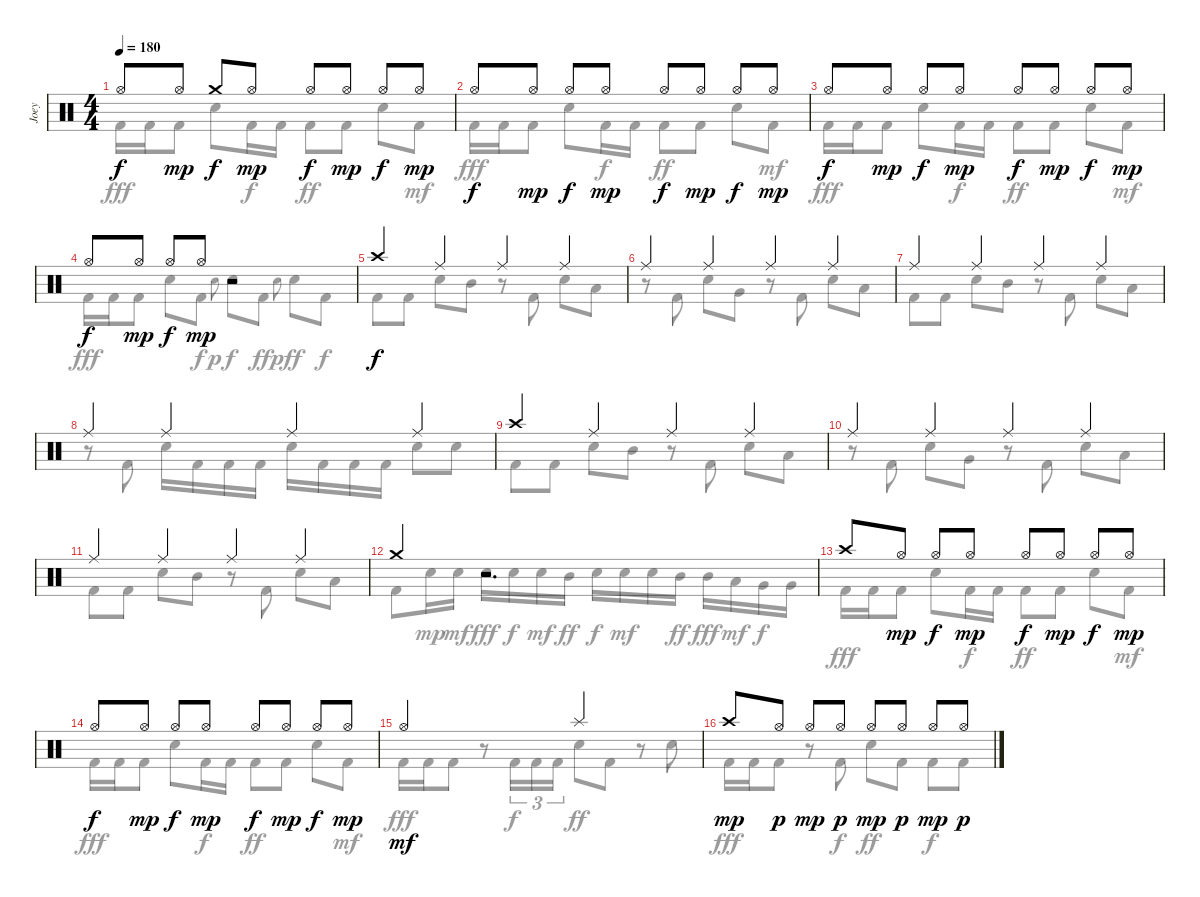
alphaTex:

\track ("Joey" "Joey") {instrument percussion}
\staff {score}
\articulation defaults
\voice
\ts (4 4)
\tempo 180
\clef neutral
\ks c "Hi-Hat (open)".8{dy f} "Hi-Hat (open)".8{dy mp} "Crash medium (hit)".8{dy f} "Hi-Hat (open)".8{dy mp} "Hi-Hat (open)".8{dy f} "Hi-Hat (open)".8{dy mp} "Hi-Hat (open)".8{dy f} "Hi-Hat (open)".8{dy mp}
|
"Hi-Hat (open)".8{dy f} "Hi-Hat (open)".8{dy mp} "Hi-Hat (open)".8{dy f} "Hi-Hat (open)".8{dy mp} "Hi-Hat (open)".8{dy f} "Hi-Hat (open)".8{dy mp} "Hi-Hat (open)".8{dy f} "Hi-Hat (open)".8{dy mp} |
"Hi-Hat (open)".8{dy f} "Hi-Hat (open)".8{dy mp} "Hi-Hat (open)".8{dy f} "Hi-Hat (open)".8{dy mp} "Hi-Hat (open)".8{dy f} "Hi-Hat (open)".8{dy mp} "Hi-Hat (open)".8{dy f} "Hi-Hat (open)".8{dy mp} |
"Hi-Hat (open)".8{dy f} "Hi-Hat (open)".8{dy mp} "Hi-Hat (open)".8{dy f} "Hi-Hat (open)".8{dy mp} r.2 |
"Crash high (hit)".4{dy f} "Ride (middle)".4 "Ride (middle)".4 "Ride (middle)".4 |
"Ride (middle)".4 "Ride (middle)".4 "Ride (middle)".4 "Ride (middle)".4 |
"Ride (middle)".4 "Ride (middle)".4 "Ride (middle)".4 "Ride (middle)".4 |
"Ride (middle)".4 "Ride (middle)".4 "Ride (middle)".4 "Ride (middle)".4 |
"Crash high (hit)".4 "Ride (middle)".4 "Ride (middle)".4 "Ride (middle)".4 |
"Ride (middle)".4 "Ride (middle)".4 "Ride (middle)".4 "Ride (middle)".4 |
"Ride (middle)".4 "Ride (middle)".4 "Ride (middle)".4 "Ride (middle)".4 |
"Crash medium (hit)".4 r.2{d} |
"Crash high (hit)".8 "Hi-Hat (open)".8{dy mp} "Hi-Hat (open)".8{dy f} "Hi-Hat (open)".8{dy mp} "Hi-Hat (open)".8{dy f} "Hi-Hat (open)".8{dy mp} "Hi-Hat (open)".8{dy f} "Hi-Hat (open)".8{dy mp} |
"Hi-Hat (open)".8{dy f} "Hi-Hat (open)".8{dy mp} "Hi-Hat (open)".8{dy f} "Hi-Hat (open)".8{dy mp} "Hi-Hat (open)".8{dy f} "Hi-Hat (open)".8{dy mp} "Hi-Hat (open)".8{dy f} "Hi-Hat (open)".8{dy mp} |
"Hi-Hat (open)".2{dy mf} "Splash (hit)".2 |
"Crash high (hit)".8{dy mp} "Hi-Hat (open)".8{dy p} "Hi-Hat (open)".8{dy mp} "Hi-Hat (open)".8{dy p} "Hi-Hat (open)".8{dy mp} "Hi-Hat (open)".8{dy p} "Hi-Hat (open)".8{dy mp} "Hi-Hat (open)".8{dy p}
\voice
\clef neutral
\ottava regular
\simile none
\ks c "Kick (hit) 2".16{dy fff} "Kick (hit) 2".16 "Kick (hit) 2".8 "Electric Snare (hit)".8 "Kick (hit) 2".16{dy f} "Kick (hit) 2".16 "Kick (hit) 2".8{dy ff} "Kick (hit) 2".8 "Electric Snare (hit)".8 "Kick (hit) 2".8{dy mf}
|
"Kick (hit) 2".16{dy fff} "Kick (hit) 2".16 "Kick (hit) 2".8 "Electric Snare (hit)".8 "Kick (hit) 2".16{dy f} "Kick (hit) 2".16 "Kick (hit) 2".8{dy ff} "Kick (hit) 2".8 "Electric Snare (hit)".8 "Kick (hit) 2".8{dy mf} |
"Kick (hit) 2".16{dy fff} "Kick (hit) 2".16 "Kick (hit) 2".8 "Electric Snare (hit)".8 "Kick (hit) 2".16{dy f} "Kick (hit) 2".16 "Kick (hit) 2".8{dy ff} "Kick (hit) 2".8 "Electric Snare (hit)".8 "Kick (hit) 2".8{dy mf} |
"Kick (hit) 2".16{dy fff} "Kick (hit) 2".16 "Kick (hit) 2".8 "Electric Snare (hit)".8 "Kick (hit) 2".8{dy f} "Electric Snare (hit)".8{gr onbeat dy p} "Electric Snare (hit)".8{dy f} "Kick (hit) 2".8{dy ff} "Electric Snare (hit)".8{gr onbeat dy p} "Electric Snare (hit)".8{dy ff} "Kick (hit) 2".8{dy f} |
"Kick (hit) 2".8 "Kick (hit) 2".8 "Electric Snare (hit)".8 "Mid Tom (hit)".8 r.8 "Kick (hit) 2".8 "Electric Snare (hit)".8 "Low Tom (hit)".8 |
r.8 "Kick (hit) 2".8 "Electric Snare (hit)".8 "Very Low Tom (hit)".8 r.8 "Kick (hit) 2".8 "Electric Snare (hit)".8 "Low Floor Tom (hit)".8 |
"Kick (hit) 2".8 "Kick (hit) 2".8 "Electric Snare (hit)".8 "Mid Tom (hit)".8 r.8 "Kick (hit) 2".8 "Electric Snare (hit)".8 "Low Tom (hit)".8 |
r.8 "Kick (hit) 2".8 "Electric Snare (hit)".16 "Kick (hit) 2".16 "Kick (hit) 2".16 "Kick (hit) 2".16 "Electric Snare (hit)".16 "Kick (hit) 2".16 "Kick (hit) 2".16 "Kick (hit) 2".16 "Electric Snare (hit)".8 "Electric Snare (hit)".8 |
"Kick (hit) 2".8 "Kick (hit) 2".8 "Electric Snare (hit)".8 "Mid Tom (hit)".8 r.8 "Kick (hit) 2".8 "Electric Snare (hit)".8 "Low Tom (hit)".8 |
r.8 "Kick (hit) 2".8 "Electric Snare (hit)".8 "Very Low Tom (hit)".8 r.8 "Kick (hit) 2".8 "Electric Snare (hit)".8 "Low Floor Tom (hit)".8 |
"Kick (hit) 2".8 "Kick (hit) 2".8 "Electric Snare (hit)".8 "Mid Tom (hit)".8 r.8 "Kick (hit) 2".8 "Electric Snare (hit)".8 "Low Tom (hit)".8 |
"Kick (hit) 2".8 "Electric Snare (hit)".16{dy mp} "Electric Snare (hit)".16{dy mf} "Electric Snare (hit)".16{dy fff} "Electric Snare (hit)".16{dy f} "Electric Snare (hit)".16{dy mf} "Mid Tom (hit)".16{dy ff} "Electric Snare (hit)".16{dy f} "Electric Snare (hit)".16{dy mf} "Electric Snare (hit)".16 "Mid Tom (hit)".16{dy ff} "Mid Tom (hit)".16{dy fff} "Low Tom (hit)".16{dy mf} "Very Low Tom (hit)".16{dy f} "Very Low Tom (hit)".16 |
"Kick (hit) 2".16{dy fff} "Kick (hit) 2".16 "Kick (hit) 2".8 "Electric Snare (hit)".8 "Kick (hit) 2".16{dy f} "Kick (hit) 2".16 "Kick (hit) 2".8{dy ff} "Kick (hit) 2".8 "Electric Snare (hit)".8 "Kick (hit) 2".8{dy mf} |
"Kick (hit) 2".16{dy fff} "Kick (hit) 2".16 "Kick (hit) 2".8 "Electric Snare (hit)".8 "Kick (hit) 2".16{dy f} "Kick (hit) 2".16 "Kick (hit) 2".8{dy ff} "Kick (hit) 2".8 "Electric Snare (hit)".8 "Kick (hit) 2".8{dy mf} |
"Kick (hit) 2".16{dy fff} "Kick (hit) 2".16 "Kick (hit) 2".8 r.8 "Kick (hit) 2".16{tu (3 2) dy f} "Kick (hit) 2".16{tu (3 2)} "Kick (hit) 2".16{tu (3 2)} "Electric Snare (hit)".8{dy ff} "Kick (hit) 2".8 r.8 "Electric Snare (hit)".8 |
"Kick (hit) 2".16{dy fff} "Kick (hit) 2".16 "Kick (hit) 2".8 r.8 "Kick (hit) 2".8{dy f} "Electric Snare (hit)".8{dy ff} "Kick (hit) 2".8 "Kick (hit) 2".8{dy f} "Kick (hit) 2".8
